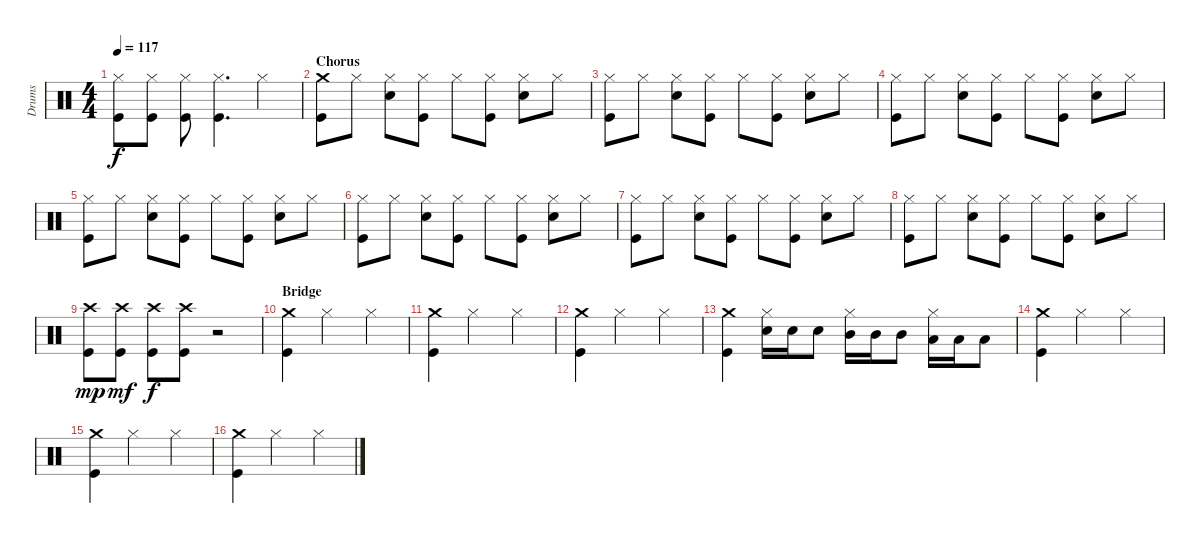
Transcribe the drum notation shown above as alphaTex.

\track ("Drums" "Drums") {instrument percussion}
\staff {score}
\articulation defaults
\ts (4 4)
\tempo 117
\clef neutral
\ks c
("Hi-Hat (closed)" "Kick (hit)").8{dy f} ("Hi-Hat (closed)" "Kick (hit)").8 ("Hi-Hat (closed)" "Kick (hit)").8 ("Hi-Hat (closed)" "Kick (hit)").4{d} "Hi-Hat (closed)".4 |
\section ("" "Chorus")
("Crash medium (hit)" "Kick (hit)").8 "Hi-Hat (closed)".8 ("Hi-Hat (closed)" "Snare (hit) 2").8 ("Hi-Hat (closed)" "Kick (hit)").8 "Hi-Hat (closed)".8 ("Hi-Hat (closed)" "Kick (hit)").8 ("Hi-Hat (closed)" "Snare (hit) 2").8 "Hi-Hat (closed)".8 |
("Hi-Hat (closed)" "Kick (hit)").8 "Hi-Hat (closed)".8 ("Hi-Hat (closed)" "Snare (hit) 2").8 ("Hi-Hat (closed)" "Kick (hit)").8 "Hi-Hat (closed)".8 ("Hi-Hat (closed)" "Kick (hit)").8 ("Hi-Hat (closed)" "Snare (hit) 2").8 "Hi-Hat (closed)".8 |
("Hi-Hat (closed)" "Kick (hit)").8 "Hi-Hat (closed)".8 ("Hi-Hat (closed)" "Snare (hit) 2").8 ("Hi-Hat (closed)" "Kick (hit)").8 "Hi-Hat (closed)".8 ("Hi-Hat (closed)" "Kick (hit)").8 ("Hi-Hat (closed)" "Snare (hit) 2").8 "Hi-Hat (closed)".8 |
("Hi-Hat (closed)" "Kick (hit)").8 "Hi-Hat (closed)".8 ("Hi-Hat (closed)" "Snare (hit) 2").8 ("Hi-Hat (closed)" "Kick (hit)").8 "Hi-Hat (closed)".8 ("Hi-Hat (closed)" "Kick (hit)").8 ("Hi-Hat (closed)" "Snare (hit) 2").8 "Hi-Hat (closed)".8 |
("Hi-Hat (closed)" "Kick (hit)").8 "Hi-Hat (closed)".8 ("Hi-Hat (closed)" "Snare (hit) 2").8 ("Hi-Hat (closed)" "Kick (hit)").8 "Hi-Hat (closed)".8 ("Hi-Hat (closed)" "Kick (hit)").8 ("Hi-Hat (closed)" "Snare (hit) 2").8 "Hi-Hat (closed)".8 |
("Hi-Hat (closed)" "Kick (hit)").8 "Hi-Hat (closed)".8 ("Hi-Hat (closed)" "Snare (hit) 2").8 ("Hi-Hat (closed)" "Kick (hit)").8 "Hi-Hat (closed)".8 ("Hi-Hat (closed)" "Kick (hit)").8 ("Hi-Hat (closed)" "Snare (hit) 2").8 "Hi-Hat (closed)".8 |
("Hi-Hat (closed)" "Kick (hit)").8 "Hi-Hat (closed)".8 ("Hi-Hat (closed)" "Snare (hit) 2").8 ("Hi-Hat (closed)" "Kick (hit)").8 "Hi-Hat (closed)".8 ("Hi-Hat (closed)" "Kick (hit)").8 ("Hi-Hat (closed)" "Snare (hit) 2").8 "Hi-Hat (closed)".8 |
("Crash high (hit)" "Kick (hit)").8{dy mp} ("Crash high (hit)" "Kick (hit)").8{dy mf} ("Crash high (hit)" "Kick (hit)").8{dy f} ("Crash high (hit)" "Kick (hit)").8 r.2 |
\section ("" "Bridge")
("Crash medium (hit)" "Kick (hit)").4 "Hi-Hat (closed)".2 "Hi-Hat (closed)".4 |
("Crash medium (hit)" "Kick (hit)").4 "Hi-Hat (closed)".2 "Hi-Hat (closed)".4 |
("Crash medium (hit)" "Kick (hit)").4 "Hi-Hat (closed)".2 "Hi-Hat (closed)".4 |
("Crash medium (hit)" "Kick (hit)").4 ("Hi-Hat (closed)" "Snare (hit) 2").16 "Snare (hit) 2".16 "Snare (hit) 2".8 ("Hi-Hat (closed)" "Mid Tom (hit)").16 "Mid Tom (hit)".16 "Mid Tom (hit)".8 ("Hi-Hat (closed)" "Low Tom (hit)").16 "Low Tom (hit)".16 "Low Tom (hit)".8 |
("Crash medium (hit)" "Kick (hit)").4 "Hi-Hat (closed)".2 "Hi-Hat (closed)".4 |
("Crash medium (hit)" "Kick (hit)").4 "Hi-Hat (closed)".2 "Hi-Hat (closed)".4 |
("Crash medium (hit)" "Kick (hit)").4 "Hi-Hat (closed)".2 "Hi-Hat (closed)".4
